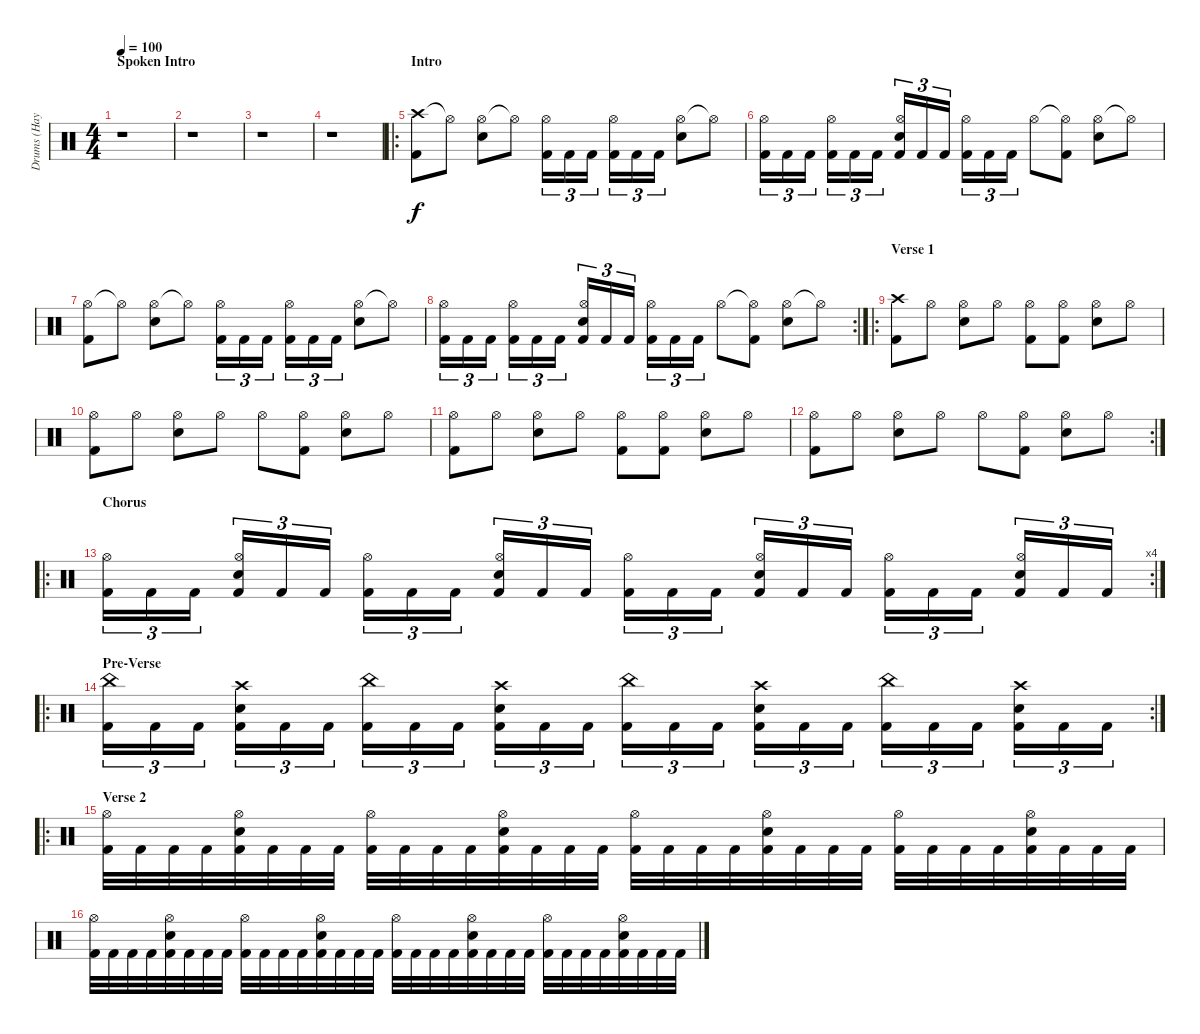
\track ("Drums (Hayden)" "Drums (Hay") {instrument percussion}
\staff {score}
\articulation defaults
\ts (4 4)
\section ("" "Spoken Intro")
\tempo 100
\clef neutral
\ks c
r.1{dy f} |
r.1 |
r.1 |
r.1 |
\ro
\section ("" "Intro")
("Crash high (hit)" "Kick (hit) 2").8 "Hi-Hat (open)"{t}.8 ("Hi-Hat (open)" "Electric Snare (hit)").8 "Hi-Hat (open)"{t}.8 ("Hi-Hat (open)" "Kick (hit) 2").16{tu (3 2)} "Kick (hit) 2".16{tu (3 2)} "Kick (hit) 2".16{tu (3 2)} ("Hi-Hat (open)" "Kick (hit) 2").16{tu (3 2)} "Kick (hit) 2".16{tu (3 2)} "Kick (hit) 2".16{tu (3 2)} ("Hi-Hat (open)" "Electric Snare (hit)").8 "Hi-Hat (open)"{t}.8 |
("Kick (hit) 2" "Hi-Hat (open)").16{tu (3 2)} "Kick (hit) 2".16{tu (3 2)} "Kick (hit) 2".16{tu (3 2)} ("Kick (hit) 2" "Hi-Hat (open)").16{tu (3 2)} "Kick (hit) 2".16{tu (3 2)} "Kick (hit) 2".16{tu (3 2)} ("Kick (hit) 2" "Hi-Hat (open)" "Electric Snare (hit)").16{tu (3 2)} "Kick (hit) 2".16{tu (3 2)} "Kick (hit) 2".16{tu (3 2)} ("Kick (hit) 2" "Hi-Hat (open)").16{tu (3 2)} "Kick (hit) 2".16{tu (3 2)} "Kick (hit) 2".16{tu (3 2)} "Hi-Hat (open)".8 ("Hi-Hat (open)"{t} "Kick (hit) 2").8 ("Hi-Hat (open)" "Electric Snare (hit)").8 "Hi-Hat (open)"{t}.8 |
("Hi-Hat (open)" "Kick (hit) 2").8 "Hi-Hat (open)"{t}.8 ("Hi-Hat (open)" "Electric Snare (hit)").8 "Hi-Hat (open)"{t}.8 ("Hi-Hat (open)" "Kick (hit) 2").16{tu (3 2)} "Kick (hit) 2".16{tu (3 2)} "Kick (hit) 2".16{tu (3 2)} ("Hi-Hat (open)" "Kick (hit) 2").16{tu (3 2)} "Kick (hit) 2".16{tu (3 2)} "Kick (hit) 2".16{tu (3 2)} ("Hi-Hat (open)" "Electric Snare (hit)").8 "Hi-Hat (open)"{t}.8 |
\rc 2
("Kick (hit) 2" "Hi-Hat (open)").16{tu (3 2)} "Kick (hit) 2".16{tu (3 2)} "Kick (hit) 2".16{tu (3 2)} ("Kick (hit) 2" "Hi-Hat (open)").16{tu (3 2)} "Kick (hit) 2".16{tu (3 2)} "Kick (hit) 2".16{tu (3 2)} ("Kick (hit) 2" "Hi-Hat (open)" "Electric Snare (hit)").16{tu (3 2)} "Kick (hit) 2".16{tu (3 2)} "Kick (hit) 2".16{tu (3 2)} ("Kick (hit) 2" "Hi-Hat (open)").16{tu (3 2)} "Kick (hit) 2".16{tu (3 2)} "Kick (hit) 2".16{tu (3 2)} "Hi-Hat (open)".8 ("Hi-Hat (open)"{t} "Kick (hit) 2").8 ("Hi-Hat (open)" "Electric Snare (hit)").8 "Hi-Hat (open)"{t}.8 |
\ro
\section ("" "Verse 1")
("Crash high (hit)" "Kick (hit) 2").8 "Hi-Hat (open)".8 ("Hi-Hat (open)" "Electric Snare (hit)").8 "Hi-Hat (open)".8 ("Hi-Hat (open)" "Kick (hit) 2").8 ("Hi-Hat (open)" "Kick (hit) 2").8 ("Hi-Hat (open)" "Electric Snare (hit)").8 "Hi-Hat (open)".8 |
("Hi-Hat (open)" "Kick (hit) 2").8 "Hi-Hat (open)".8 ("Hi-Hat (open)" "Electric Snare (hit)").8 "Hi-Hat (open)".8 "Hi-Hat (open)".8 ("Hi-Hat (open)" "Kick (hit) 2").8 ("Hi-Hat (open)" "Electric Snare (hit)").8 "Hi-Hat (open)".8 |
("Hi-Hat (open)" "Kick (hit) 2").8 "Hi-Hat (open)".8 ("Hi-Hat (open)" "Electric Snare (hit)").8 "Hi-Hat (open)".8 ("Hi-Hat (open)" "Kick (hit) 2").8 ("Hi-Hat (open)" "Kick (hit) 2").8 ("Hi-Hat (open)" "Electric Snare (hit)").8 "Hi-Hat (open)".8 |
\rc 2
("Hi-Hat (open)" "Kick (hit) 2").8 "Hi-Hat (open)".8 ("Hi-Hat (open)" "Electric Snare (hit)").8 "Hi-Hat (open)".8 "Hi-Hat (open)".8 ("Hi-Hat (open)" "Kick (hit) 2").8 ("Hi-Hat (open)" "Electric Snare (hit)").8 "Hi-Hat (open)".8 |
\ro
\rc 4
\section ("" "Chorus")
("Kick (hit) 2" "Hi-Hat (open)").16{tu (3 2)} "Kick (hit) 2".16{tu (3 2)} "Kick (hit) 2".16{tu (3 2)} ("Kick (hit) 2" "Hi-Hat (open)" "Electric Snare (hit)").16{tu (3 2)} "Kick (hit) 2".16{tu (3 2)} "Kick (hit) 2".16{tu (3 2)} ("Kick (hit) 2" "Hi-Hat (open)").16{tu (3 2)} "Kick (hit) 2".16{tu (3 2)} "Kick (hit) 2".16{tu (3 2)} ("Kick (hit) 2" "Hi-Hat (open)" "Electric Snare (hit)").16{tu (3 2)} "Kick (hit) 2".16{tu (3 2)} "Kick (hit) 2".16{tu (3 2)} ("Kick (hit) 2" "Hi-Hat (open)").16{tu (3 2)} "Kick (hit) 2".16{tu (3 2)} "Kick (hit) 2".16{tu (3 2)} ("Kick (hit) 2" "Hi-Hat (open)" "Electric Snare (hit)").16{tu (3 2)} "Kick (hit) 2".16{tu (3 2)} "Kick (hit) 2".16{tu (3 2)} ("Kick (hit) 2" "Hi-Hat (open)").16{tu (3 2)} "Kick (hit) 2".16{tu (3 2)} "Kick (hit) 2".16{tu (3 2)} ("Kick (hit) 2" "Hi-Hat (open)" "Electric Snare (hit)").16{tu (3 2)} "Kick (hit) 2".16{tu (3 2)} "Kick (hit) 2".16{tu (3 2)} |
\ro
\rc 2
\section ("" "Pre-Verse")
("Kick (hit) 2" "China (hit)").16{tu (3 2)} "Kick (hit) 2".16{tu (3 2)} "Kick (hit) 2".16{tu (3 2)} ("Kick (hit) 2" "Crash high (hit)" "Electric Snare (hit)").16{tu (3 2)} "Kick (hit) 2".16{tu (3 2)} "Kick (hit) 2".16{tu (3 2)} ("Kick (hit) 2" "China (hit)").16{tu (3 2)} "Kick (hit) 2".16{tu (3 2)} "Kick (hit) 2".16{tu (3 2)} ("Kick (hit) 2" "Crash high (hit)" "Electric Snare (hit)").16{tu (3 2)} "Kick (hit) 2".16{tu (3 2)} "Kick (hit) 2".16{tu (3 2)} ("Kick (hit) 2" "China (hit)").16{tu (3 2)} "Kick (hit) 2".16{tu (3 2)} "Kick (hit) 2".16{tu (3 2)} ("Kick (hit) 2" "Crash high (hit)" "Electric Snare (hit)").16{tu (3 2)} "Kick (hit) 2".16{tu (3 2)} "Kick (hit) 2".16{tu (3 2)} ("Kick (hit) 2" "China (hit)").16{tu (3 2)} "Kick (hit) 2".16{tu (3 2)} "Kick (hit) 2".16{tu (3 2)} ("Kick (hit) 2" "Crash high (hit)" "Electric Snare (hit)").16{tu (3 2)} "Kick (hit) 2".16{tu (3 2)} "Kick (hit) 2".16{tu (3 2)} |
\ro
\section ("" "Verse 2")
("Kick (hit) 2" "Hi-Hat (open)").32 "Kick (hit) 2".32 "Kick (hit) 2".32 "Kick (hit) 2".32 ("Kick (hit) 2" "Hi-Hat (open)" "Electric Snare (hit)").32 "Kick (hit) 2".32 "Kick (hit) 2".32 "Kick (hit) 2".32 ("Kick (hit) 2" "Hi-Hat (open)").32 "Kick (hit) 2".32 "Kick (hit) 2".32 "Kick (hit) 2".32 ("Kick (hit) 2" "Hi-Hat (open)" "Electric Snare (hit)").32 "Kick (hit) 2".32 "Kick (hit) 2".32 "Kick (hit) 2".32 ("Kick (hit) 2" "Hi-Hat (open)").32 "Kick (hit) 2".32 "Kick (hit) 2".32 "Kick (hit) 2".32 ("Kick (hit) 2" "Hi-Hat (open)" "Electric Snare (hit)").32 "Kick (hit) 2".32 "Kick (hit) 2".32 "Kick (hit) 2".32 ("Kick (hit) 2" "Hi-Hat (open)").32 "Kick (hit) 2".32 "Kick (hit) 2".32 "Kick (hit) 2".32 ("Kick (hit) 2" "Hi-Hat (open)" "Electric Snare (hit)").32 "Kick (hit) 2".32 "Kick (hit) 2".32 "Kick (hit) 2".32 |
("Kick (hit) 2" "Hi-Hat (open)").32 "Kick (hit) 2".32 "Kick (hit) 2".32 "Kick (hit) 2".32 ("Kick (hit) 2" "Hi-Hat (open)" "Electric Snare (hit)").32 "Kick (hit) 2".32 "Kick (hit) 2".32 "Kick (hit) 2".32 ("Kick (hit) 2" "Hi-Hat (open)").32 "Kick (hit) 2".32 "Kick (hit) 2".32 "Kick (hit) 2".32 ("Kick (hit) 2" "Hi-Hat (open)" "Electric Snare (hit)").32 "Kick (hit) 2".32 "Kick (hit) 2".32 "Kick (hit) 2".32 ("Kick (hit) 2" "Hi-Hat (open)").32 "Kick (hit) 2".32 "Kick (hit) 2".32 "Kick (hit) 2".32 ("Kick (hit) 2" "Hi-Hat (open)" "Electric Snare (hit)").32 "Kick (hit) 2".32 "Kick (hit) 2".32 "Kick (hit) 2".32 ("Kick (hit) 2" "Hi-Hat (open)").32 "Kick (hit) 2".32 "Kick (hit) 2".32 "Kick (hit) 2".32 ("Kick (hit) 2" "Hi-Hat (open)" "Electric Snare (hit)").32 "Kick (hit) 2".32 "Kick (hit) 2".32 "Kick (hit) 2".32
